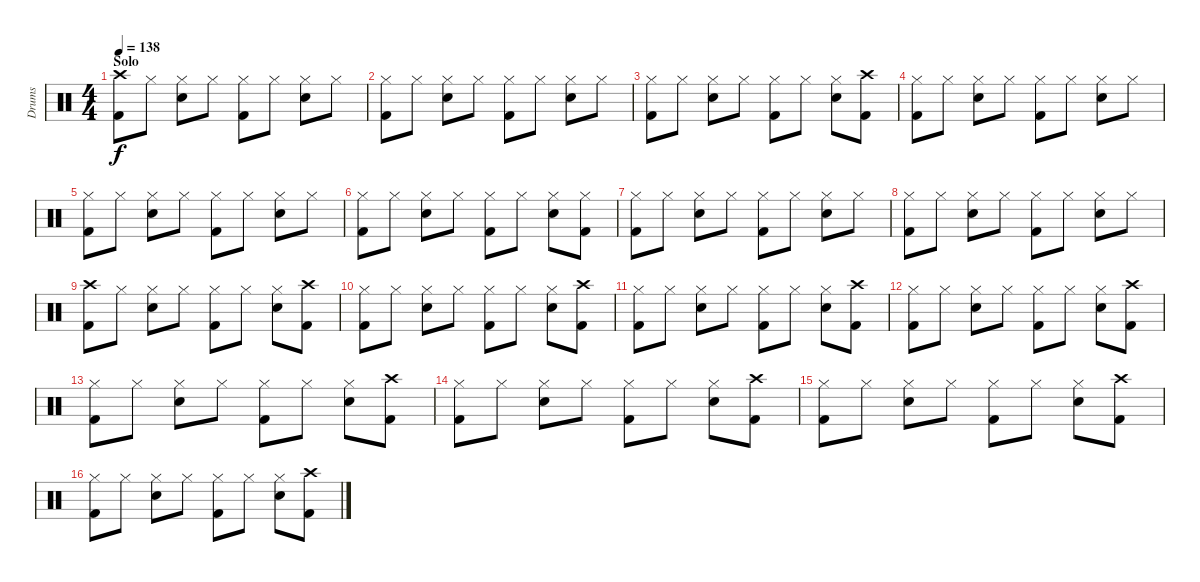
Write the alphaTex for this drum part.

\track ("Drums" "Drums") {instrument percussion}
\staff {score}
\articulation defaults
\ts (4 4)
\section ("" "Solo")
\tempo 138
\clef neutral
\ks c
("Crash high (hit)" "Kick (hit) 2").8{dy f} "Hi-Hat (closed)".8 ("Hi-Hat (closed)" "Snare (hit) 2").8 "Hi-Hat (closed)".8 ("Hi-Hat (closed)" "Kick (hit) 2").8 "Hi-Hat (closed)".8 ("Hi-Hat (closed)" "Snare (hit) 2").8 "Hi-Hat (closed)".8 |
("Hi-Hat (closed)" "Kick (hit) 2").8 "Hi-Hat (closed)".8 ("Hi-Hat (closed)" "Snare (hit) 2").8 "Hi-Hat (closed)".8 ("Hi-Hat (closed)" "Kick (hit) 2").8 "Hi-Hat (closed)".8 ("Hi-Hat (closed)" "Snare (hit) 2").8 "Hi-Hat (closed)".8 |
("Hi-Hat (closed)" "Kick (hit) 2").8 "Hi-Hat (closed)".8 ("Hi-Hat (closed)" "Snare (hit) 2").8 "Hi-Hat (closed)".8 ("Hi-Hat (closed)" "Kick (hit) 2").8 "Hi-Hat (closed)".8 ("Hi-Hat (closed)" "Snare (hit) 2").8 ("Crash high (hit)" "Kick (hit) 2").8 |
("Hi-Hat (closed)" "Kick (hit) 2").8 "Hi-Hat (closed)".8 ("Hi-Hat (closed)" "Snare (hit) 2").8 "Hi-Hat (closed)".8 ("Hi-Hat (closed)" "Kick (hit) 2").8 "Hi-Hat (closed)".8 ("Hi-Hat (closed)" "Snare (hit) 2").8 "Hi-Hat (closed)".8 |
("Hi-Hat (closed)" "Kick (hit) 2").8 "Hi-Hat (closed)".8 ("Hi-Hat (closed)" "Snare (hit) 2").8 "Hi-Hat (closed)".8 ("Hi-Hat (closed)" "Kick (hit) 2").8 "Hi-Hat (closed)".8 ("Hi-Hat (closed)" "Snare (hit) 2").8 "Hi-Hat (closed)".8 |
("Hi-Hat (closed)" "Kick (hit) 2").8 "Hi-Hat (closed)".8 ("Hi-Hat (closed)" "Snare (hit) 2").8 "Hi-Hat (closed)".8 ("Hi-Hat (closed)" "Kick (hit) 2").8 "Hi-Hat (closed)".8 ("Hi-Hat (closed)" "Snare (hit) 2").8 ("Hi-Hat (closed)" "Kick (hit) 2").8 |
("Hi-Hat (closed)" "Kick (hit) 2").8 "Hi-Hat (closed)".8 ("Hi-Hat (closed)" "Snare (hit) 2").8 "Hi-Hat (closed)".8 ("Hi-Hat (closed)" "Kick (hit) 2").8 "Hi-Hat (closed)".8 ("Hi-Hat (closed)" "Snare (hit) 2").8 "Hi-Hat (closed)".8 |
("Hi-Hat (closed)" "Kick (hit) 2").8 "Hi-Hat (closed)".8 ("Hi-Hat (closed)" "Snare (hit) 2").8 "Hi-Hat (closed)".8 ("Hi-Hat (closed)" "Kick (hit) 2").8 "Hi-Hat (closed)".8 ("Hi-Hat (closed)" "Snare (hit) 2").8 "Hi-Hat (closed)".8 |
("Crash high (hit)" "Kick (hit) 2").8 "Hi-Hat (closed)".8 ("Hi-Hat (closed)" "Snare (hit) 2").8 "Hi-Hat (closed)".8 ("Hi-Hat (closed)" "Kick (hit) 2").8 "Hi-Hat (closed)".8 ("Hi-Hat (closed)" "Snare (hit) 2").8 ("Crash high (hit)" "Kick (hit) 2").8 |
("Hi-Hat (closed)" "Kick (hit) 2").8 "Hi-Hat (closed)".8 ("Hi-Hat (closed)" "Snare (hit) 2").8 "Hi-Hat (closed)".8 ("Hi-Hat (closed)" "Kick (hit) 2").8 "Hi-Hat (closed)".8 ("Hi-Hat (closed)" "Snare (hit) 2").8 ("Crash high (hit)" "Kick (hit) 2").8 |
("Hi-Hat (closed)" "Kick (hit) 2").8 "Hi-Hat (closed)".8 ("Hi-Hat (closed)" "Snare (hit) 2").8 "Hi-Hat (closed)".8 ("Hi-Hat (closed)" "Kick (hit) 2").8 "Hi-Hat (closed)".8 ("Hi-Hat (closed)" "Snare (hit) 2").8 ("Crash high (hit)" "Kick (hit) 2").8 |
("Hi-Hat (closed)" "Kick (hit) 2").8 "Hi-Hat (closed)".8 ("Hi-Hat (closed)" "Snare (hit) 2").8 "Hi-Hat (closed)".8 ("Hi-Hat (closed)" "Kick (hit) 2").8 "Hi-Hat (closed)".8 ("Hi-Hat (closed)" "Snare (hit) 2").8 ("Crash high (hit)" "Kick (hit) 2").8 |
("Hi-Hat (closed)" "Kick (hit) 2").8 "Hi-Hat (closed)".8 ("Hi-Hat (closed)" "Snare (hit) 2").8 "Hi-Hat (closed)".8 ("Hi-Hat (closed)" "Kick (hit) 2").8 "Hi-Hat (closed)".8 ("Hi-Hat (closed)" "Snare (hit) 2").8 ("Crash high (hit)" "Kick (hit) 2").8 |
("Hi-Hat (closed)" "Kick (hit) 2").8 "Hi-Hat (closed)".8 ("Hi-Hat (closed)" "Snare (hit) 2").8 "Hi-Hat (closed)".8 ("Hi-Hat (closed)" "Kick (hit) 2").8 "Hi-Hat (closed)".8 ("Hi-Hat (closed)" "Snare (hit) 2").8 ("Crash high (hit)" "Kick (hit) 2").8 |
("Hi-Hat (closed)" "Kick (hit) 2").8 "Hi-Hat (closed)".8 ("Hi-Hat (closed)" "Snare (hit) 2").8 "Hi-Hat (closed)".8 ("Hi-Hat (closed)" "Kick (hit) 2").8 "Hi-Hat (closed)".8 ("Hi-Hat (closed)" "Snare (hit) 2").8 ("Crash high (hit)" "Kick (hit) 2").8 |
("Hi-Hat (closed)" "Kick (hit) 2").8 "Hi-Hat (closed)".8 ("Hi-Hat (closed)" "Snare (hit) 2").8 "Hi-Hat (closed)".8 ("Hi-Hat (closed)" "Kick (hit) 2").8 "Hi-Hat (closed)".8 ("Hi-Hat (closed)" "Snare (hit) 2").8 ("Crash high (hit)" "Kick (hit) 2").8
